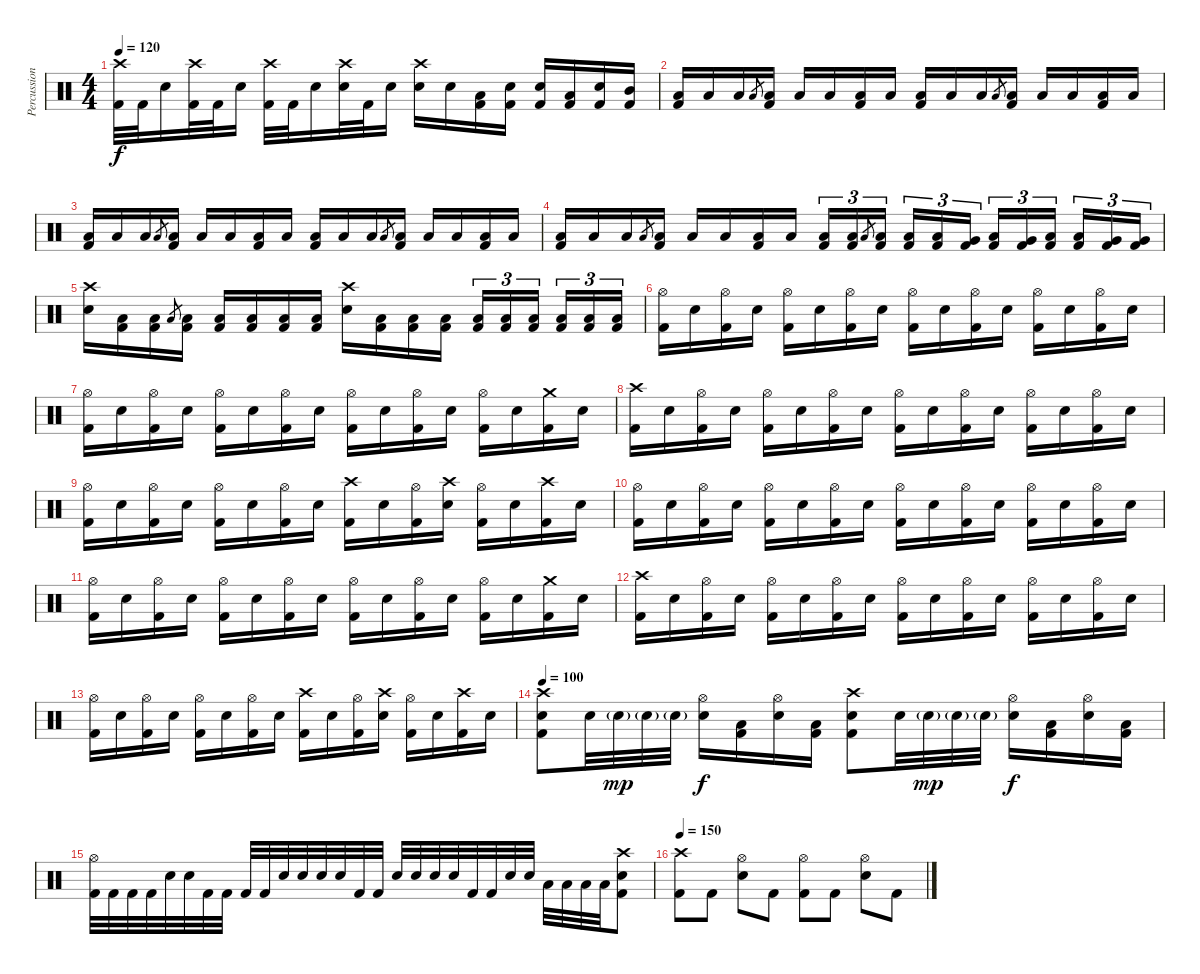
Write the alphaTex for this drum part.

\track ("Percussion" "Percussion") {instrument percussion}
\staff {score}
\articulation defaults
\ts (4 4)
\tempo 120
\clef neutral
\ks c
("Crash high (hit)" "Kick (hit) 2").32{dy f} "Kick (hit) 2".32 "Electric Snare (hit)".16 ("Crash high (hit)" "Kick (hit) 2").32 "Kick (hit) 2".32 "Electric Snare (hit)".16 ("Crash high (hit)" "Kick (hit) 2").32 "Kick (hit) 2".32 "Electric Snare (hit)".16 ("Crash high (hit)" "Electric Snare (hit)").32 "Kick (hit) 2".32 "Electric Snare (hit)".16 ("Crash high (hit)" "Electric Snare (hit)").16 "Electric Snare (hit)".16 ("Low Tom (hit)" "Kick (hit) 2").16 ("Electric Snare (hit)" "Kick (hit) 2").16 ("Electric Snare (hit)" "Kick (hit) 2").16 ("Low Tom (hit)" "Kick (hit) 2").16 ("Electric Snare (hit)" "Kick (hit) 2").16 ("Mid Tom (hit)" "Kick (hit) 2").16 |
("Low Tom (hit)" "Kick (hit) 2").16 "Low Tom (hit)".16 "Low Tom (hit)".16 "Low Tom (hit)".8{gr} ("Low Tom (hit)" "Kick (hit) 2").16 "Low Tom (hit)".16 "Low Tom (hit)".16 ("Low Tom (hit)" "Kick (hit) 2").16 "Low Tom (hit)".16 ("Low Tom (hit)" "Kick (hit) 2").16 "Low Tom (hit)".16 "Low Tom (hit)".16 "Low Tom (hit)".8{gr} ("Low Tom (hit)" "Kick (hit) 2").16 "Low Tom (hit)".16 "Low Tom (hit)".16 ("Low Tom (hit)" "Kick (hit) 2").16 "Low Tom (hit)".16 |
("Low Tom (hit)" "Kick (hit) 2").16 "Low Tom (hit)".16 "Low Tom (hit)".16 "Low Tom (hit)".8{gr} ("Low Tom (hit)" "Kick (hit) 2").16 "Low Tom (hit)".16 "Low Tom (hit)".16 ("Low Tom (hit)" "Kick (hit) 2").16 "Low Tom (hit)".16 ("Low Tom (hit)" "Kick (hit) 2").16 "Low Tom (hit)".16 "Low Tom (hit)".16 "Low Tom (hit)".8{gr} ("Low Tom (hit)" "Kick (hit) 2").16 "Low Tom (hit)".16 "Low Tom (hit)".16 ("Low Tom (hit)" "Kick (hit) 2").16 "Low Tom (hit)".16 |
("Low Tom (hit)" "Kick (hit) 2").16 "Low Tom (hit)".16 "Low Tom (hit)".16 "Low Tom (hit)".8{gr} ("Low Tom (hit)" "Kick (hit) 2").16 "Low Tom (hit)".16 "Low Tom (hit)".16 ("Low Tom (hit)" "Kick (hit) 2").16 "Low Tom (hit)".16 ("Low Tom (hit)" "Kick (hit) 2").16{tu (3 2)} ("Low Tom (hit)" "Kick (hit) 2").16{tu (3 2)} "Low Tom (hit)".8{gr} ("Low Tom (hit)" "Kick (hit) 2").16{tu (3 2)} ("Low Tom (hit)" "Kick (hit) 2").16{tu (3 2)} ("Low Tom (hit)" "Kick (hit) 2").16{tu (3 2)} ("Very Low Tom (hit)" "Kick (hit) 2").16{tu (3 2)} ("Low Tom (hit)" "Kick (hit) 2").16{tu (3 2)} ("Very Low Tom (hit)" "Kick (hit) 2").16{tu (3 2)} ("Low Tom (hit)" "Kick (hit) 2").16{tu (3 2)} ("Low Tom (hit)" "Kick (hit) 2").16{tu (3 2)} ("Very Low Tom (hit)" "Kick (hit) 2").16{tu (3 2)} ("Very Low Tom (hit)" "Kick (hit) 2").16{tu (3 2)} |
("Crash high (hit)" "Electric Snare (hit)").16 ("Low Tom (hit)" "Kick (hit) 2").16 ("Low Tom (hit)" "Kick (hit) 2").16 "Low Tom (hit)".8{gr} ("Low Tom (hit)" "Kick (hit) 2").16 ("Low Tom (hit)" "Kick (hit) 2").16 ("Low Tom (hit)" "Kick (hit) 2").16 ("Low Tom (hit)" "Kick (hit) 2").16 ("Low Tom (hit)" "Kick (hit) 2").16 ("Crash high (hit)" "Electric Snare (hit)").16 ("Low Tom (hit)" "Kick (hit) 2").16 ("Low Tom (hit)" "Kick (hit) 2").16 ("Low Tom (hit)" "Kick (hit) 2").16 ("Low Tom (hit)" "Kick (hit) 2").16{tu (3 2)} ("Low Tom (hit)" "Kick (hit) 2").16{tu (3 2)} ("Low Tom (hit)" "Kick (hit) 2").16{tu (3 2)} ("Low Tom (hit)" "Kick (hit) 2").16{tu (3 2)} ("Low Tom (hit)" "Kick (hit) 2").16{tu (3 2)} ("Low Tom (hit)" "Kick (hit) 2").16{tu (3 2)} |
("Hi-Hat (open)" "Kick (hit) 2").16 "Electric Snare (hit)".16 ("Hi-Hat (open)" "Kick (hit) 2").16 "Electric Snare (hit)".16 ("Hi-Hat (open)" "Kick (hit) 2").16 "Electric Snare (hit)".16 ("Hi-Hat (open)" "Kick (hit) 2").16 "Electric Snare (hit)".16 ("Hi-Hat (open)" "Kick (hit) 2").16 "Electric Snare (hit)".16 ("Hi-Hat (open)" "Kick (hit) 2").16 "Electric Snare (hit)".16 ("Hi-Hat (open)" "Kick (hit) 2").16 "Electric Snare (hit)".16 ("Hi-Hat (open)" "Kick (hit) 2").16 "Electric Snare (hit)".16 |
("Hi-Hat (open)" "Kick (hit) 2").16 "Electric Snare (hit)".16 ("Hi-Hat (open)" "Kick (hit) 2").16 "Electric Snare (hit)".16 ("Hi-Hat (open)" "Kick (hit) 2").16 "Electric Snare (hit)".16 ("Hi-Hat (open)" "Kick (hit) 2").16 "Electric Snare (hit)".16 ("Hi-Hat (open)" "Kick (hit) 2").16 "Electric Snare (hit)".16 ("Hi-Hat (open)" "Kick (hit) 2").16 "Electric Snare (hit)".16 ("Hi-Hat (open)" "Kick (hit) 2").16 "Electric Snare (hit)".16 ("Crash medium (hit)" "Kick (hit) 2").16 "Electric Snare (hit)".16 |
("Crash high (hit)" "Kick (hit) 2").16 "Electric Snare (hit)".16 ("Hi-Hat (open)" "Kick (hit) 2").16 "Electric Snare (hit)".16 ("Hi-Hat (open)" "Kick (hit) 2").16 "Electric Snare (hit)".16 ("Hi-Hat (open)" "Kick (hit) 2").16 "Electric Snare (hit)".16 ("Hi-Hat (open)" "Kick (hit) 2").16 "Electric Snare (hit)".16 ("Hi-Hat (open)" "Kick (hit) 2").16 "Electric Snare (hit)".16 ("Hi-Hat (open)" "Kick (hit) 2").16 "Electric Snare (hit)".16 ("Hi-Hat (open)" "Kick (hit) 2").16 "Electric Snare (hit)".16 |
("Hi-Hat (open)" "Kick (hit) 2").16 "Electric Snare (hit)".16 ("Hi-Hat (open)" "Kick (hit) 2").16 "Electric Snare (hit)".16 ("Hi-Hat (open)" "Kick (hit) 2").16 "Electric Snare (hit)".16 ("Hi-Hat (open)" "Kick (hit) 2").16 "Electric Snare (hit)".16 ("Crash high (hit)" "Kick (hit) 2").16 "Electric Snare (hit)".16 ("Hi-Hat (open)" "Kick (hit) 2").16 ("Crash high (hit)" "Electric Snare (hit)").16 ("Hi-Hat (open)" "Kick (hit) 2").16 "Electric Snare (hit)".16 ("Crash high (hit)" "Kick (hit) 2").16 "Electric Snare (hit)".16 |
("Hi-Hat (open)" "Kick (hit) 2").16 "Electric Snare (hit)".16 ("Hi-Hat (open)" "Kick (hit) 2").16 "Electric Snare (hit)".16 ("Hi-Hat (open)" "Kick (hit) 2").16 "Electric Snare (hit)".16 ("Hi-Hat (open)" "Kick (hit) 2").16 "Electric Snare (hit)".16 ("Hi-Hat (open)" "Kick (hit) 2").16 "Electric Snare (hit)".16 ("Hi-Hat (open)" "Kick (hit) 2").16 "Electric Snare (hit)".16 ("Hi-Hat (open)" "Kick (hit) 2").16 "Electric Snare (hit)".16 ("Hi-Hat (open)" "Kick (hit) 2").16 "Electric Snare (hit)".16 |
("Hi-Hat (open)" "Kick (hit) 2").16 "Electric Snare (hit)".16 ("Hi-Hat (open)" "Kick (hit) 2").16 "Electric Snare (hit)".16 ("Hi-Hat (open)" "Kick (hit) 2").16 "Electric Snare (hit)".16 ("Hi-Hat (open)" "Kick (hit) 2").16 "Electric Snare (hit)".16 ("Hi-Hat (open)" "Kick (hit) 2").16 "Electric Snare (hit)".16 ("Hi-Hat (open)" "Kick (hit) 2").16 "Electric Snare (hit)".16 ("Hi-Hat (open)" "Kick (hit) 2").16 "Electric Snare (hit)".16 ("Crash medium (hit)" "Kick (hit) 2").16 "Electric Snare (hit)".16 |
("Crash high (hit)" "Kick (hit) 2").16 "Electric Snare (hit)".16 ("Hi-Hat (open)" "Kick (hit) 2").16 "Electric Snare (hit)".16 ("Hi-Hat (open)" "Kick (hit) 2").16 "Electric Snare (hit)".16 ("Hi-Hat (open)" "Kick (hit) 2").16 "Electric Snare (hit)".16 ("Hi-Hat (open)" "Kick (hit) 2").16 "Electric Snare (hit)".16 ("Hi-Hat (open)" "Kick (hit) 2").16 "Electric Snare (hit)".16 ("Hi-Hat (open)" "Kick (hit) 2").16 "Electric Snare (hit)".16 ("Hi-Hat (open)" "Kick (hit) 2").16 "Electric Snare (hit)".16 |
("Hi-Hat (open)" "Kick (hit) 2").16 "Electric Snare (hit)".16 ("Hi-Hat (open)" "Kick (hit) 2").16 "Electric Snare (hit)".16 ("Hi-Hat (open)" "Kick (hit) 2").16 "Electric Snare (hit)".16 ("Hi-Hat (open)" "Kick (hit) 2").16 "Electric Snare (hit)".16 ("Crash high (hit)" "Kick (hit) 2").16 "Electric Snare (hit)".16 ("Hi-Hat (open)" "Kick (hit) 2").16 ("Crash high (hit)" "Electric Snare (hit)").16 ("Hi-Hat (open)" "Kick (hit) 2").16 "Electric Snare (hit)".16 ("Crash high (hit)" "Kick (hit) 2").16 "Electric Snare (hit)".16 |
\tempo 100
("Crash high (hit)" "Electric Snare (hit)" "Kick (hit) 2").8 "Electric Snare (hit)".32 "Electric Snare (hit)"{g}.32{dy mp} "Electric Snare (hit)"{g}.32 "Electric Snare (hit)"{g}.32 ("Hi-Hat (open)" "Electric Snare (hit)").16{dy f} ("Low Tom (hit)" "Kick (hit) 2").16 ("Hi-Hat (open)" "Electric Snare (hit)").16 ("Low Tom (hit)" "Kick (hit) 2").16 ("Crash high (hit)" "Electric Snare (hit)" "Kick (hit) 2").8 "Electric Snare (hit)".32 "Electric Snare (hit)"{g}.32{dy mp} "Electric Snare (hit)"{g}.32 "Electric Snare (hit)"{g}.32 ("Hi-Hat (open)" "Electric Snare (hit)").16{dy f} ("Low Tom (hit)" "Kick (hit) 2").16 ("Hi-Hat (open)" "Electric Snare (hit)").16 ("Low Tom (hit)" "Kick (hit) 2").16 |
("Hi-Hat (open)" "Kick (hit) 2").32 "Kick (hit) 2".32 "Kick (hit) 2".32 "Kick (hit) 2".32 "Electric Snare (hit)".32 "Electric Snare (hit)".32 "Kick (hit) 2".32 "Kick (hit) 2".32 "Kick (hit) 2".32 "Kick (hit) 2".32 "Electric Snare (hit)".32 "Electric Snare (hit)".32 "Electric Snare (hit)".32 "Electric Snare (hit)".32 "Kick (hit) 2".32 "Kick (hit) 2".32 "Electric Snare (hit)".32 "Electric Snare (hit)".32 "Electric Snare (hit)".32 "Electric Snare (hit)".32 "Kick (hit) 2".32 "Kick (hit) 2".32 "Electric Snare (hit)".32 "Electric Snare (hit)".32 "Low Tom (hit)".32 "Low Tom (hit)".32 "Low Tom (hit)".32 "Low Tom (hit)".32 ("Crash high (hit)" "Kick (hit) 2" "Electric Snare (hit)").8 |
\tempo 150
("Crash high (hit)" "Kick (hit) 2").8 "Kick (hit) 2".8 ("Hi-Hat (open)" "Electric Snare (hit)").8 "Kick (hit) 2".8 ("Hi-Hat (open)" "Kick (hit) 2").8 "Kick (hit) 2".8 ("Hi-Hat (open)" "Electric Snare (hit)").8 "Kick (hit) 2".8
